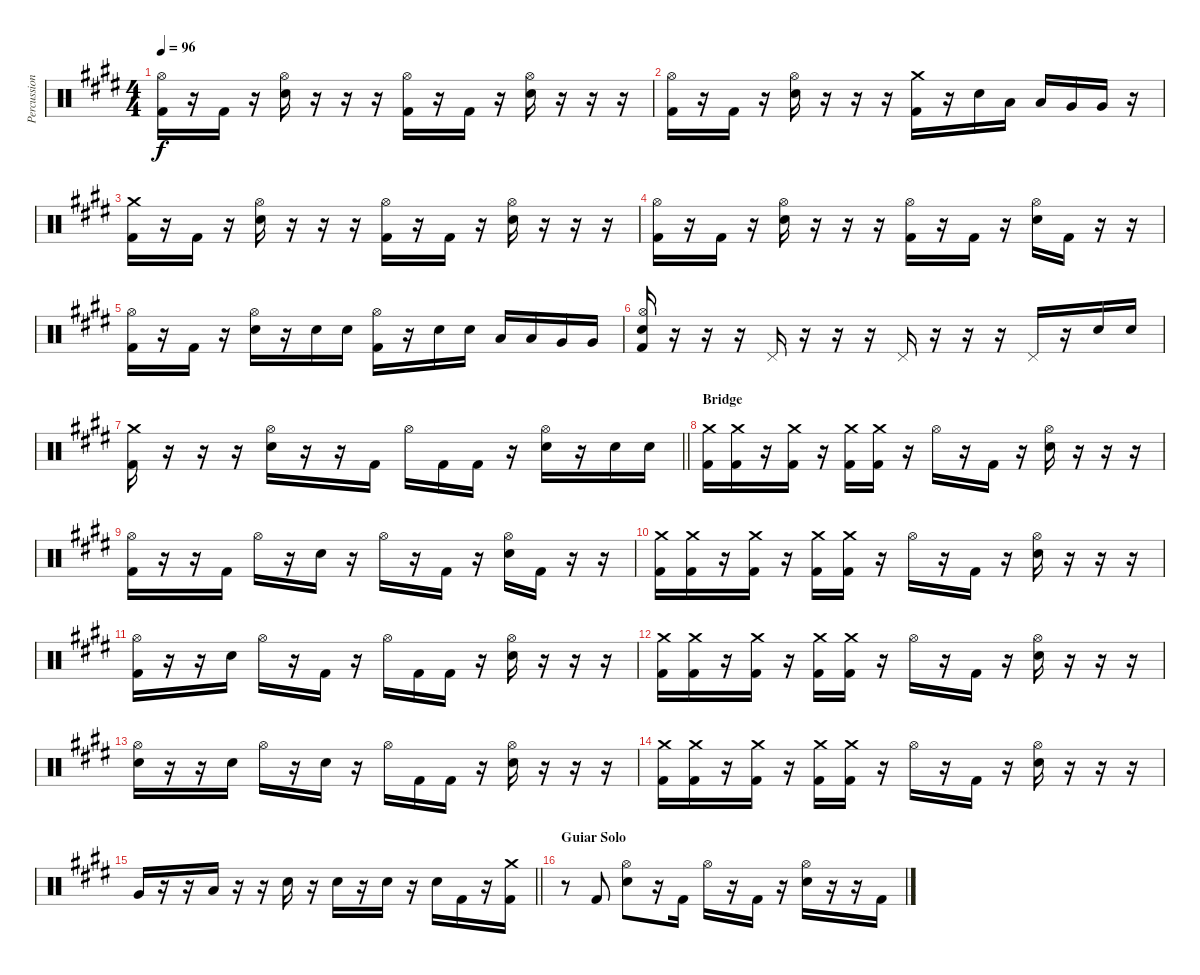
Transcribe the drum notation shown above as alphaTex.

\track ("Percussioni" "Percussion") {instrument percussion}
\staff {score}
\articulation defaults
\ts (4 4)
\tempo 96
\clef neutral
\ks c#minor
("Kick (hit) 2" "Hi-Hat (open)").16{dy f} r.16 "Kick (hit) 2".16 r.16 ("Electric Snare (hit)" "Hi-Hat (open)").16 r.16 r.16 r.16 ("Kick (hit) 2" "Hi-Hat (open)").16 r.16 "Kick (hit) 2".16 r.16 ("Electric Snare (hit)" "Hi-Hat (open)").16 r.16 r.16 r.16 |
\ks e
("Kick (hit) 2" "Hi-Hat (open)").16 r.16 "Kick (hit) 2".16 r.16 ("Electric Snare (hit)" "Hi-Hat (open)").16 r.16 r.16 r.16 ("Kick (hit) 2" "Crash medium (hit)").16 r.16 "Electric Snare (hit)".16 "Low Tom (hit)".16 "Low Tom (hit)".16 "Very Low Tom (hit)".16 "Very Low Tom (hit)".16 r.16 |
\ks c#minor
("Kick (hit) 2" "Crash medium (hit)").16 r.16 "Kick (hit) 2".16 r.16 ("Electric Snare (hit)" "Hi-Hat (open)").16 r.16 r.16 r.16 ("Kick (hit) 2" "Hi-Hat (open)").16 r.16 "Kick (hit) 2".16 r.16 ("Electric Snare (hit)" "Hi-Hat (open)").16 r.16 r.16 r.16 |
("Kick (hit) 2" "Hi-Hat (open)").16 r.16 "Kick (hit) 2".16 r.16 ("Electric Snare (hit)" "Hi-Hat (open)").16 r.16 r.16 r.16 ("Kick (hit) 2" "Hi-Hat (open)").16 r.16 "Kick (hit) 2".16 r.16 ("Electric Snare (hit)" "Hi-Hat (open)").16 "Kick (hit) 2".16 r.16 r.16 |
("Kick (hit) 2" "Hi-Hat (open)").16 r.16 "Kick (hit) 2".16 r.16 ("Electric Snare (hit)" "Hi-Hat (open)").16 r.16 "Electric Snare (hit)".16 "Electric Snare (hit)".16 ("Kick (hit) 2" "Hi-Hat (open)").16 r.16 "Electric Snare (hit)".16 "Electric Snare (hit)".16 "Low Tom (hit)".16 "Low Tom (hit)".16 "Very Low Tom (hit)".16 "Very Low Tom (hit)".16 |
\ks e
("Kick (hit) 2" "Electric Snare (hit)" "Hi-Hat (open)").16 r.16 r.16 r.16 "Pedal Hi-Hat (hit)".16 r.16 r.16 r.16 "Pedal Hi-Hat (hit)".16 r.16 r.16 r.16 "Pedal Hi-Hat (hit)".16 r.16 "Electric Snare (hit)".16 "Electric Snare (hit)".16 |
\barLineRight lightlight
\ks c#minor
("Kick (hit) 2" "Crash medium (hit)").16 r.16 r.16 r.16 ("Electric Snare (hit)" "Hi-Hat (open)").16 r.16 r.16 "Kick (hit) 2".16 "Hi-Hat (open)".16 "Kick (hit) 2".16 "Kick (hit) 2".16 r.16 ("Electric Snare (hit)" "Hi-Hat (open)").16 r.16 "Electric Snare (hit)".16 "Electric Snare (hit)".16 |
\section ("" "Bridge")
\ks e
("Kick (hit) 2" "Crash medium (hit)").16 ("Kick (hit) 2" "Crash medium (hit)").16 r.16 ("Kick (hit) 2" "Crash medium (hit)").16 r.16 ("Kick (hit) 2" "Crash medium (hit)").16 ("Kick (hit) 2" "Crash medium (hit)").16 r.16 "Hi-Hat (open)".16 r.16 "Kick (hit) 2".16 r.16 ("Electric Snare (hit)" "Hi-Hat (open)").16 r.16 r.16 r.16 |
\ks c#minor
("Kick (hit) 2" "Hi-Hat (open)").16 r.16 r.16 "Kick (hit) 2".16 "Hi-Hat (open)".16 r.16 "Electric Snare (hit)".16 r.16 "Hi-Hat (open)".16 r.16 "Kick (hit) 2".16 r.16 ("Electric Snare (hit)" "Hi-Hat (open)").16 "Kick (hit) 2".16 r.16 r.16 |
("Kick (hit) 2" "Crash medium (hit)").16 ("Kick (hit) 2" "Crash medium (hit)").16 r.16 ("Kick (hit) 2" "Crash medium (hit)").16 r.16 ("Kick (hit) 2" "Crash medium (hit)").16 ("Kick (hit) 2" "Crash medium (hit)").16 r.16 "Hi-Hat (open)".16 r.16 "Kick (hit) 2".16 r.16 ("Electric Snare (hit)" "Hi-Hat (open)").16 r.16 r.16 r.16 |
("Kick (hit) 2" "Hi-Hat (open)").16 r.16 r.16 "Electric Snare (hit)".16 "Hi-Hat (open)".16 r.16 "Kick (hit) 2".16 r.16 "Hi-Hat (open)".16 "Kick (hit) 2".16 "Kick (hit) 2".16 r.16 ("Electric Snare (hit)" "Hi-Hat (open)").16 r.16 r.16 r.16 |
("Kick (hit) 2" "Crash medium (hit)").16 ("Kick (hit) 2" "Crash medium (hit)").16 r.16 ("Kick (hit) 2" "Crash medium (hit)").16 r.16 ("Kick (hit) 2" "Crash medium (hit)").16 ("Kick (hit) 2" "Crash medium (hit)").16 r.16 "Hi-Hat (open)".16 r.16 "Kick (hit) 2".16 r.16 ("Electric Snare (hit)" "Hi-Hat (open)").16 r.16 r.16 r.16 |
("Electric Snare (hit)" "Hi-Hat (open)").16 r.16 r.16 "Electric Snare (hit)".16 "Hi-Hat (open)".16 r.16 "Electric Snare (hit)".16 r.16 "Hi-Hat (open)".16 "Kick (hit) 2".16 "Kick (hit) 2".16 r.16 ("Electric Snare (hit)" "Hi-Hat (open)").16 r.16 r.16 r.16 |
("Kick (hit) 2" "Crash medium (hit)").16 ("Kick (hit) 2" "Crash medium (hit)").16 r.16 ("Kick (hit) 2" "Crash medium (hit)").16 r.16 ("Kick (hit) 2" "Crash medium (hit)").16 ("Kick (hit) 2" "Crash medium (hit)").16 r.16 "Hi-Hat (open)".16 r.16 "Kick (hit) 2".16 r.16 ("Electric Snare (hit)" "Hi-Hat (open)").16 r.16 r.16 r.16 |
\barLineRight lightlight "Very Low Tom (hit)".16
r.16 r.16 "Low Floor Tom (hit)".16 r.16 r.16 "Electric Snare (hit)".16 r.16 "Electric Snare (hit)".16 r.16 "Electric Snare (hit)".16 r.16 "Electric Snare (hit)".16 "Kick (hit) 2".16 r.16 ("Kick (hit) 2" "Crash medium (hit)").16 |
\section ("" "Guiar Solo")
r.8 "Kick (hit) 2".8 ("Electric Snare (hit)" "Hi-Hat (open)").8 r.16 "Kick (hit) 2".16 "Hi-Hat (open)".16 r.16 "Kick (hit) 2".16 r.16 ("Electric Snare (hit)" "Hi-Hat (open)").16 r.16 r.16 "Kick (hit) 2".16
